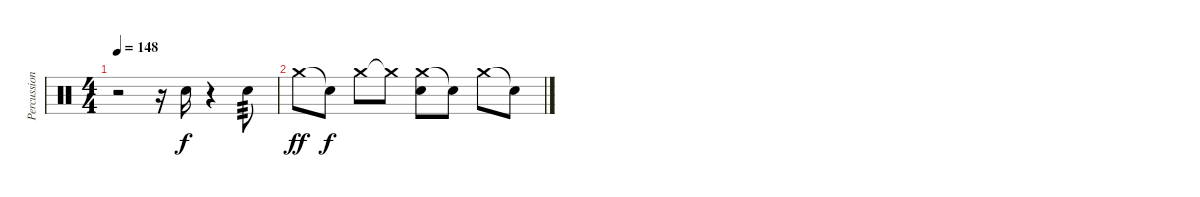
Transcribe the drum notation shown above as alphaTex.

\track ("Percussion" "Percussion") {instrument percussion}
\staff {score}
\articulation defaults
\ts (4 4)
\tempo 148
\clef neutral
\ks c
r.2{dy f} r.16 "Snare (hit) 2".16 r.4 "Snare (hit) 2".8{tp 3} |
"Crash medium (hit)".8{dy ff} "Snare (hit)"{t}.8{dy f} "Crash medium (hit)".8 "Crash medium (hit)"{t}.8 ("Crash medium (hit)" "Snare (hit) 2").8 "Snare (hit)"{t}.8 "Crash medium (hit)".8 "Snare (hit)"{t}.8
